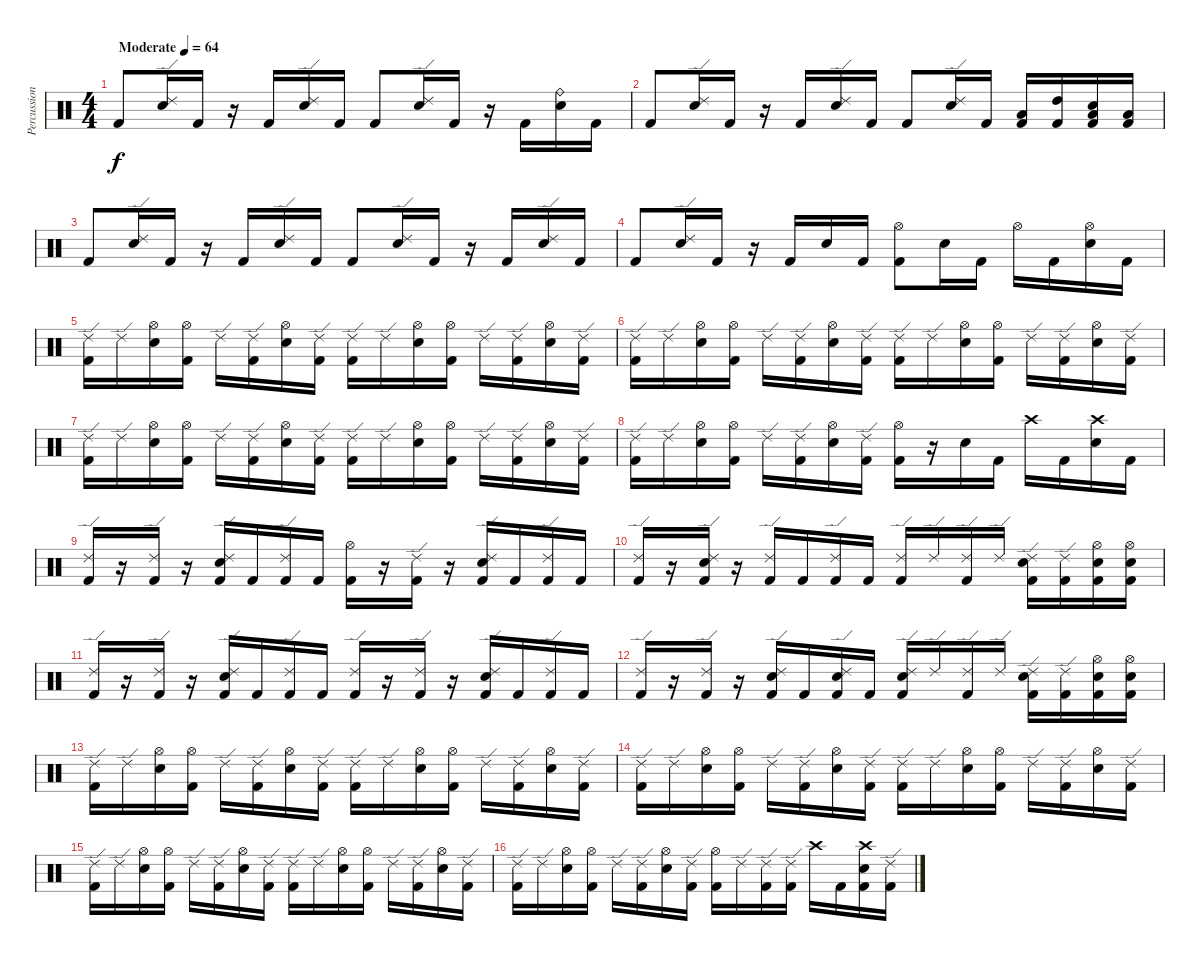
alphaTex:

\track ("Percussion" "Percussion") {instrument percussion}
\staff {score}
\articulation defaults
\ts (4 4)
\tempo (64 "Moderate")
\clef neutral
\ks c "Kick (hit) 2".8{dy f}
("Ride (edge) 2" "Electric Snare (hit)").16 "Kick (hit) 2".16 r.16 "Kick (hit) 2".16 ("Ride (edge) 2" "Electric Snare (hit)").16 "Kick (hit) 2".16 "Kick (hit) 2".8 ("Ride (edge) 2" "Electric Snare (hit)").16 "Kick (hit) 2".16 r.16 "Kick (hit) 2".16 ("Ride (bell)" "Electric Snare (hit)").16 "Kick (hit) 2".16 |
"Kick (hit) 2".8 ("Ride (edge) 2" "Electric Snare (hit)").16 "Kick (hit) 2".16 r.16 "Kick (hit) 2".16 ("Ride (edge) 2" "Electric Snare (hit)").16 "Kick (hit) 2".16 "Kick (hit) 2".8 ("Ride (edge) 2" "Electric Snare (hit)").16 "Kick (hit) 2".16 ("Low Tom (hit)" "Kick (hit) 2").16 ("High Tom (hit)" "Kick (hit) 2").16 ("Low Tom (hit)" "Kick (hit) 2" "Electric Snare (hit)").16 ("Low Floor Tom (hit)" "Kick (hit) 2").16 |
"Kick (hit) 2".8 ("Ride (edge) 2" "Electric Snare (hit)").16 "Kick (hit) 2".16 r.16 "Kick (hit) 2".16 ("Ride (edge) 2" "Electric Snare (hit)").16 "Kick (hit) 2".16 "Kick (hit) 2".8 ("Ride (edge) 2" "Electric Snare (hit)").16 "Kick (hit) 2".16 r.16 "Kick (hit) 2".16 ("Ride (edge) 2" "Electric Snare (hit)").16 "Kick (hit) 2".16 |
"Kick (hit) 2".8 ("Ride (edge) 2" "Electric Snare (hit)").16 "Kick (hit) 2".16 r.16 "Kick (hit) 2".16 "Electric Snare (hit)".16 "Kick (hit) 2".16 ("Hi-Hat (open)" "Kick (hit) 2").8 "Electric Snare (hit)".16 "Kick (hit) 2".16 "Hi-Hat (open)".16 "Kick (hit) 2".16 ("Hi-Hat (open)" "Electric Snare (hit)").16 "Kick (hit) 2".16 |
("Ride (edge) 2" "Kick (hit) 2").16 "Ride (edge) 2".16 ("Hi-Hat (open)" "Electric Snare (hit)").16 ("Hi-Hat (open)" "Kick (hit) 2").16 "Ride (edge) 2".16 ("Ride (edge) 2" "Kick (hit) 2").16 ("Hi-Hat (open)" "Electric Snare (hit)").16 ("Ride (edge) 2" "Kick (hit) 2").16 ("Ride (edge) 2" "Kick (hit) 2").16 "Ride (edge) 2".16 ("Hi-Hat (open)" "Electric Snare (hit)").16 ("Hi-Hat (open)" "Kick (hit) 2").16 "Ride (edge) 2".16 ("Ride (edge) 2" "Kick (hit) 2").16 ("Hi-Hat (open)" "Electric Snare (hit)").16 ("Ride (edge) 2" "Kick (hit) 2").16 |
("Ride (edge) 2" "Kick (hit) 2").16 "Ride (edge) 2".16 ("Hi-Hat (open)" "Electric Snare (hit)").16 ("Hi-Hat (open)" "Kick (hit) 2").16 "Ride (edge) 2".16 ("Ride (edge) 2" "Kick (hit) 2").16 ("Hi-Hat (open)" "Electric Snare (hit)").16 ("Ride (edge) 2" "Kick (hit) 2").16 ("Ride (edge) 2" "Kick (hit) 2").16 "Ride (edge) 2".16 ("Hi-Hat (open)" "Electric Snare (hit)").16 ("Hi-Hat (open)" "Kick (hit) 2").16 "Ride (edge) 2".16 ("Ride (edge) 2" "Kick (hit) 2").16 ("Hi-Hat (open)" "Electric Snare (hit)").16 ("Ride (edge) 2" "Kick (hit) 2").16 |
("Ride (edge) 2" "Kick (hit) 2").16 "Ride (edge) 2".16 ("Hi-Hat (open)" "Electric Snare (hit)").16 ("Hi-Hat (open)" "Kick (hit) 2").16 "Ride (edge) 2".16 ("Ride (edge) 2" "Kick (hit) 2").16 ("Hi-Hat (open)" "Electric Snare (hit)").16 ("Ride (edge) 2" "Kick (hit) 2").16 ("Ride (edge) 2" "Kick (hit) 2").16 "Ride (edge) 2".16 ("Hi-Hat (open)" "Electric Snare (hit)").16 ("Hi-Hat (open)" "Kick (hit) 2").16 "Ride (edge) 2".16 ("Ride (edge) 2" "Kick (hit) 2").16 ("Hi-Hat (open)" "Electric Snare (hit)").16 ("Ride (edge) 2" "Kick (hit) 2").16 |
("Ride (edge) 2" "Kick (hit) 2").16 "Ride (edge) 2".16 ("Hi-Hat (open)" "Electric Snare (hit)").16 ("Hi-Hat (open)" "Kick (hit) 2").16 "Ride (edge) 2".16 ("Ride (edge) 2" "Kick (hit) 2").16 ("Hi-Hat (open)" "Electric Snare (hit)").16 ("Ride (edge) 2" "Kick (hit) 2").16 ("Hi-Hat (open)" "Kick (hit) 2").16 r.16 "Electric Snare (hit)".16 "Kick (hit) 2".16 "Crash high (hit)".16 "Kick (hit) 2".16 ("Crash high (hit)" "Electric Snare (hit)").16 "Kick (hit) 2".16 |
("Ride (edge) 2" "Kick (hit) 2").16 r.16 ("Ride (edge) 2" "Kick (hit) 2").16 r.16 ("Ride (edge) 2" "Kick (hit) 2" "Electric Snare (hit)").16 "Kick (hit) 2".16 ("Ride (edge) 2" "Kick (hit) 2").16 "Kick (hit) 2".16 ("Hi-Hat (open)" "Kick (hit) 2").16 r.16 ("Ride (edge) 2" "Kick (hit) 2").16 r.16 ("Ride (edge) 2" "Kick (hit) 2" "Electric Snare (hit)").16 "Kick (hit) 2".16 ("Ride (edge) 2" "Kick (hit) 2").16 "Kick (hit) 2".16 |
("Ride (edge) 2" "Kick (hit) 2").16 r.16 ("Ride (edge) 2" "Kick (hit) 2" "Electric Snare (hit)").16 r.16 ("Ride (edge) 2" "Kick (hit) 2").16 "Kick (hit) 2".16 ("Ride (edge) 2" "Kick (hit) 2").16 "Kick (hit) 2".16 ("Ride (edge) 2" "Kick (hit) 2").16 "Ride (edge) 2".16 ("Ride (edge) 2" "Kick (hit) 2").16 "Ride (edge) 2".16 ("Ride (edge) 2" "Kick (hit) 2" "Electric Snare (hit)").16 ("Ride (edge) 2" "Kick (hit) 2").16 ("Hi-Hat (open)" "Kick (hit) 2" "Electric Snare (hit)").16 ("Hi-Hat (open)" "Kick (hit) 2" "Electric Snare (hit)").16 |
("Ride (edge) 2" "Kick (hit) 2").16 r.16 ("Ride (edge) 2" "Kick (hit) 2").16 r.16 ("Ride (edge) 2" "Kick (hit) 2" "Electric Snare (hit)").16 "Kick (hit) 2".16 ("Ride (edge) 2" "Kick (hit) 2").16 "Kick (hit) 2".16 ("Ride (edge) 2" "Kick (hit) 2").16 r.16 ("Ride (edge) 2" "Kick (hit) 2").16 r.16 ("Ride (edge) 2" "Kick (hit) 2" "Electric Snare (hit)").16 "Kick (hit) 2".16 ("Ride (edge) 2" "Kick (hit) 2").16 "Kick (hit) 2".16 |
("Ride (edge) 2" "Kick (hit) 2").16 r.16 ("Ride (edge) 2" "Kick (hit) 2").16 r.16 ("Ride (edge) 2" "Kick (hit) 2" "Electric Snare (hit)").16 "Kick (hit) 2".16 ("Ride (edge) 2" "Kick (hit) 2" "Electric Snare (hit)").16 "Kick (hit) 2".16 ("Ride (edge) 2" "Kick (hit) 2" "Electric Snare (hit)").16 "Ride (edge) 2".16 ("Ride (edge) 2" "Kick (hit) 2").16 "Ride (edge) 2".16 ("Ride (edge) 2" "Kick (hit) 2" "Electric Snare (hit)").16 ("Ride (edge) 2" "Kick (hit) 2").16 ("Hi-Hat (open)" "Kick (hit) 2" "Electric Snare (hit)").16 ("Hi-Hat (open)" "Kick (hit) 2" "Electric Snare (hit)").16 |
("Ride (edge) 2" "Kick (hit) 2").16 "Ride (edge) 2".16 ("Hi-Hat (open)" "Electric Snare (hit)").16 ("Hi-Hat (open)" "Kick (hit) 2").16 "Ride (edge) 2".16 ("Ride (edge) 2" "Kick (hit) 2").16 ("Hi-Hat (open)" "Electric Snare (hit)").16 ("Ride (edge) 2" "Kick (hit) 2").16 ("Ride (edge) 2" "Kick (hit) 2").16 "Ride (edge) 2".16 ("Hi-Hat (open)" "Electric Snare (hit)").16 ("Hi-Hat (open)" "Kick (hit) 2").16 "Ride (edge) 2".16 ("Ride (edge) 2" "Kick (hit) 2").16 ("Hi-Hat (open)" "Electric Snare (hit)").16 ("Ride (edge) 2" "Kick (hit) 2").16 |
("Ride (edge) 2" "Kick (hit) 2").16 "Ride (edge) 2".16 ("Hi-Hat (open)" "Electric Snare (hit)").16 ("Hi-Hat (open)" "Kick (hit) 2").16 "Ride (edge) 2".16 ("Ride (edge) 2" "Kick (hit) 2").16 ("Hi-Hat (open)" "Electric Snare (hit)").16 ("Ride (edge) 2" "Kick (hit) 2").16 ("Ride (edge) 2" "Kick (hit) 2").16 "Ride (edge) 2".16 ("Hi-Hat (open)" "Electric Snare (hit)").16 ("Hi-Hat (open)" "Kick (hit) 2").16 "Ride (edge) 2".16 ("Ride (edge) 2" "Kick (hit) 2").16 ("Hi-Hat (open)" "Electric Snare (hit)").16 ("Ride (edge) 2" "Kick (hit) 2").16 |
("Ride (edge) 2" "Kick (hit) 2").16 "Ride (edge) 2".16 ("Hi-Hat (open)" "Electric Snare (hit)").16 ("Hi-Hat (open)" "Kick (hit) 2").16 "Ride (edge) 2".16 ("Ride (edge) 2" "Kick (hit) 2").16 ("Hi-Hat (open)" "Electric Snare (hit)").16 ("Ride (edge) 2" "Kick (hit) 2").16 ("Ride (edge) 2" "Kick (hit) 2").16 "Ride (edge) 2".16 ("Hi-Hat (open)" "Electric Snare (hit)").16 ("Hi-Hat (open)" "Kick (hit) 2").16 "Ride (edge) 2".16 ("Ride (edge) 2" "Kick (hit) 2").16 ("Hi-Hat (open)" "Electric Snare (hit)").16 ("Ride (edge) 2" "Kick (hit) 2").16 |
("Ride (edge) 2" "Kick (hit) 2").16 "Ride (edge) 2".16 ("Hi-Hat (open)" "Electric Snare (hit)").16 ("Hi-Hat (open)" "Kick (hit) 2").16 "Ride (edge) 2".16 ("Ride (edge) 2" "Kick (hit) 2").16 ("Hi-Hat (open)" "Electric Snare (hit)").16 ("Ride (edge) 2" "Kick (hit) 2").16 ("Hi-Hat (open)" "Kick (hit) 2").16 "Ride (edge) 2".16 ("Ride (edge) 2" "Kick (hit) 2").16 ("Ride (edge) 2" "Kick (hit) 2").16 "Crash high (hit)".16 "Kick (hit) 2".16 ("Crash high (hit)" "Kick (hit) 2" "Electric Snare (hit)").16 ("Ride (edge) 2" "Kick (hit) 2").16
